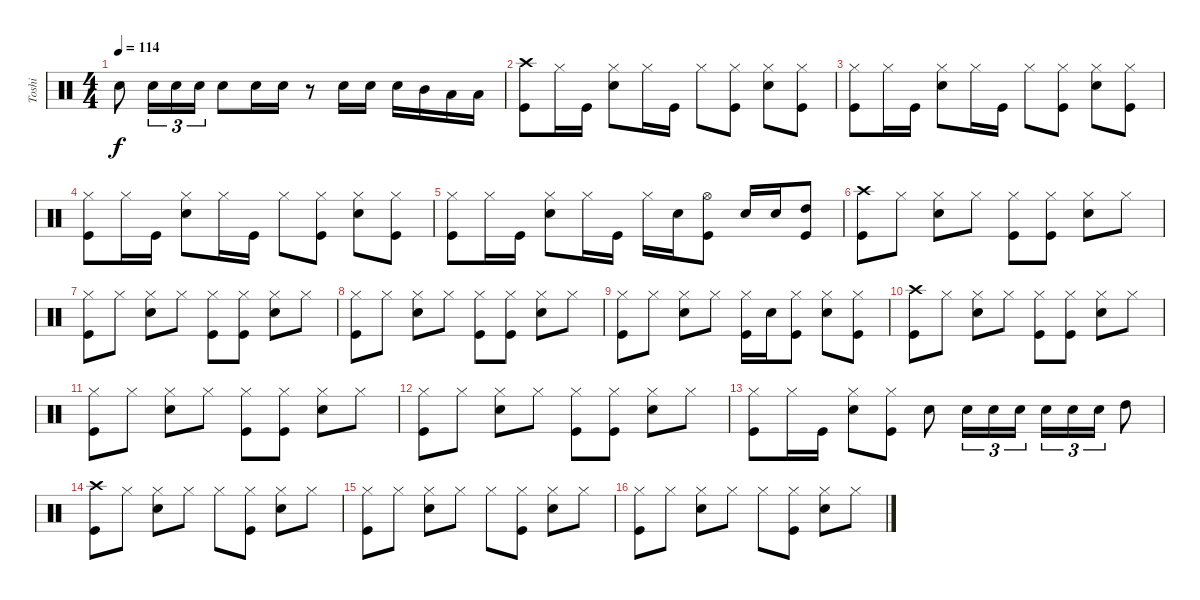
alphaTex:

\track ("Toshi" "Toshi") {instrument percussion}
\staff {score}
\articulation defaults
\ts (4 4)
\tempo 114
\clef neutral
\ks c "Snare (hit) 2".8{dy f} "Snare (hit) 2".16{tu (3 2)} "Snare (hit) 2".16{tu (3 2)} "Snare (hit) 2".16{tu (3 2)} "Snare (hit) 2".8 "Snare (hit) 2".16 "Snare (hit) 2".16
r.8 "Snare (hit) 2".16 "Snare (hit) 2".16 "Snare (hit) 2".16 "Mid Tom (hit)".16 "Low Tom (hit)".16 "Low Tom (hit)".16 |
("Crash high (hit)" "Kick (hit)").8 "Hi-Hat (closed)".16 "Kick (hit)".16 ("Hi-Hat (closed)" "Snare (hit) 2").8 "Hi-Hat (closed)".16 "Kick (hit)".16 "Hi-Hat (closed)".8 ("Hi-Hat (closed)" "Kick (hit)").8 ("Hi-Hat (closed)" "Snare (hit) 2").8 ("Hi-Hat (closed)" "Kick (hit)").8 |
("Hi-Hat (closed)" "Kick (hit)").8 "Hi-Hat (closed)".16 "Kick (hit)".16 ("Hi-Hat (closed)" "Snare (hit) 2").8 "Hi-Hat (closed)".16 "Kick (hit)".16 "Hi-Hat (closed)".8 ("Hi-Hat (closed)" "Kick (hit)").8 ("Hi-Hat (closed)" "Snare (hit) 2").8 ("Hi-Hat (closed)" "Kick (hit)").8 |
("Hi-Hat (closed)" "Kick (hit)").8 "Hi-Hat (closed)".16 "Kick (hit)".16 ("Hi-Hat (closed)" "Snare (hit) 2").8 "Hi-Hat (closed)".16 "Kick (hit)".16 "Hi-Hat (closed)".8 ("Hi-Hat (closed)" "Kick (hit)").8 ("Hi-Hat (closed)" "Snare (hit) 2").8 ("Hi-Hat (closed)" "Kick (hit)").8 |
("Hi-Hat (closed)" "Kick (hit)").8 "Hi-Hat (closed)".16 "Kick (hit)".16 ("Hi-Hat (closed)" "Snare (hit) 2").8 "Hi-Hat (closed)".16 "Kick (hit)".16 "Hi-Hat (closed)".16 "Snare (hit) 2".16 ("Hi-Hat (open)" "Kick (hit)").8 "Snare (hit) 2".16 "Snare (hit) 2".16 ("High Tom (hit)" "Kick (hit)").8 |
("Crash high (hit)" "Kick (hit)").8 "Hi-Hat (closed)".8 ("Hi-Hat (closed)" "Snare (hit) 2").8 "Hi-Hat (closed)".8 ("Hi-Hat (closed)" "Kick (hit)").8 ("Hi-Hat (closed)" "Kick (hit)").8 ("Hi-Hat (closed)" "Snare (hit) 2").8 "Hi-Hat (closed)".8 |
("Hi-Hat (closed)" "Kick (hit)").8 "Hi-Hat (closed)".8 ("Hi-Hat (closed)" "Snare (hit) 2").8 "Hi-Hat (closed)".8 ("Hi-Hat (closed)" "Kick (hit)").8 ("Hi-Hat (closed)" "Kick (hit)").8 ("Hi-Hat (closed)" "Snare (hit) 2").8 "Hi-Hat (closed)".8 |
("Hi-Hat (closed)" "Kick (hit)").8 "Hi-Hat (closed)".8 ("Hi-Hat (closed)" "Snare (hit) 2").8 "Hi-Hat (closed)".8 ("Hi-Hat (closed)" "Kick (hit)").8 ("Hi-Hat (closed)" "Kick (hit)").8 ("Hi-Hat (closed)" "Snare (hit) 2").8 "Hi-Hat (closed)".8 |
("Hi-Hat (closed)" "Kick (hit)").8 "Hi-Hat (closed)".8 ("Hi-Hat (closed)" "Snare (hit) 2").8 "Hi-Hat (closed)".8 ("Hi-Hat (closed)" "Kick (hit)").16 "Snare (hit) 2".16 ("Hi-Hat (closed)" "Kick (hit)").8 ("Hi-Hat (closed)" "Snare (hit) 2").8 ("Hi-Hat (closed)" "Kick (hit)").8 |
("Crash high (hit)" "Kick (hit)").8 "Hi-Hat (closed)".8 ("Hi-Hat (closed)" "Snare (hit) 2").8 "Hi-Hat (closed)".8 ("Hi-Hat (closed)" "Kick (hit)").8 ("Hi-Hat (closed)" "Kick (hit)").8 ("Hi-Hat (closed)" "Snare (hit) 2").8 "Hi-Hat (closed)".8 |
("Hi-Hat (closed)" "Kick (hit)").8 "Hi-Hat (closed)".8 ("Hi-Hat (closed)" "Snare (hit) 2").8 "Hi-Hat (closed)".8 ("Hi-Hat (closed)" "Kick (hit)").8 ("Hi-Hat (closed)" "Kick (hit)").8 ("Hi-Hat (closed)" "Snare (hit) 2").8 "Hi-Hat (closed)".8 |
("Hi-Hat (closed)" "Kick (hit)").8 "Hi-Hat (closed)".8 ("Hi-Hat (closed)" "Snare (hit) 2").8 "Hi-Hat (closed)".8 ("Hi-Hat (closed)" "Kick (hit)").8 ("Hi-Hat (closed)" "Kick (hit)").8 ("Hi-Hat (closed)" "Snare (hit) 2").8 "Hi-Hat (closed)".8 |
("Hi-Hat (closed)" "Kick (hit)").8 "Hi-Hat (closed)".16 "Kick (hit)".16 ("Hi-Hat (closed)" "Snare (hit) 2").8 ("Hi-Hat (closed)" "Kick (hit)").8 "Snare (hit) 2".8 "Snare (hit) 2".16{tu (3 2)} "Snare (hit) 2".16{tu (3 2)} "Snare (hit) 2".16{tu (3 2)} "Snare (hit) 2".16{tu (3 2)} "Snare (hit) 2".16{tu (3 2)} "Snare (hit) 2".16{tu (3 2)} "High Tom (hit)".8 |
("Crash high (hit)" "Kick (hit)").8 "Hi-Hat (closed)".8 ("Hi-Hat (closed)" "Snare (hit) 2").8 "Hi-Hat (closed)".8 "Hi-Hat (closed)".8 ("Hi-Hat (closed)" "Kick (hit)").8 ("Hi-Hat (closed)" "Snare (hit) 2").8 "Hi-Hat (closed)".8 |
("Hi-Hat (closed)" "Kick (hit)").8 "Hi-Hat (closed)".8 ("Hi-Hat (closed)" "Snare (hit) 2").8 "Hi-Hat (closed)".8 "Hi-Hat (closed)".8 ("Hi-Hat (closed)" "Kick (hit)").8 ("Hi-Hat (closed)" "Snare (hit) 2").8 "Hi-Hat (closed)".8 |
("Hi-Hat (closed)" "Kick (hit)").8 "Hi-Hat (closed)".8 ("Hi-Hat (closed)" "Snare (hit) 2").8 "Hi-Hat (closed)".8 "Hi-Hat (closed)".8 ("Hi-Hat (closed)" "Kick (hit)").8 ("Hi-Hat (closed)" "Snare (hit) 2").8 "Hi-Hat (closed)".8
